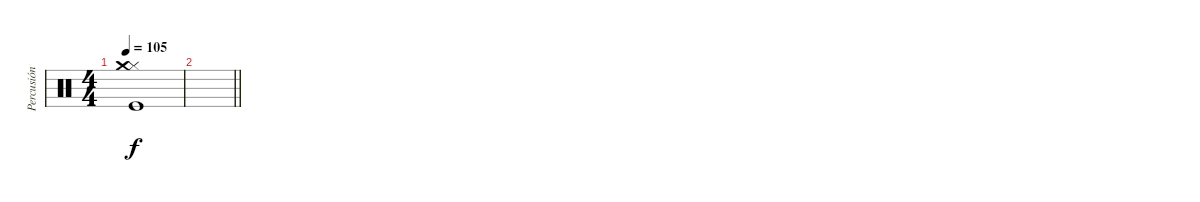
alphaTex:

\track ("Percusión" "Percusión") {instrument percussion}
\staff {score}
\articulation defaults
\ts (4 4)
\tempo 105
\clef neutral
\ks c
("Kick (hit)" "Hi-Hat (closed)" "Crash medium (hit)").1{dy f} |
\barLineRight lightlight
